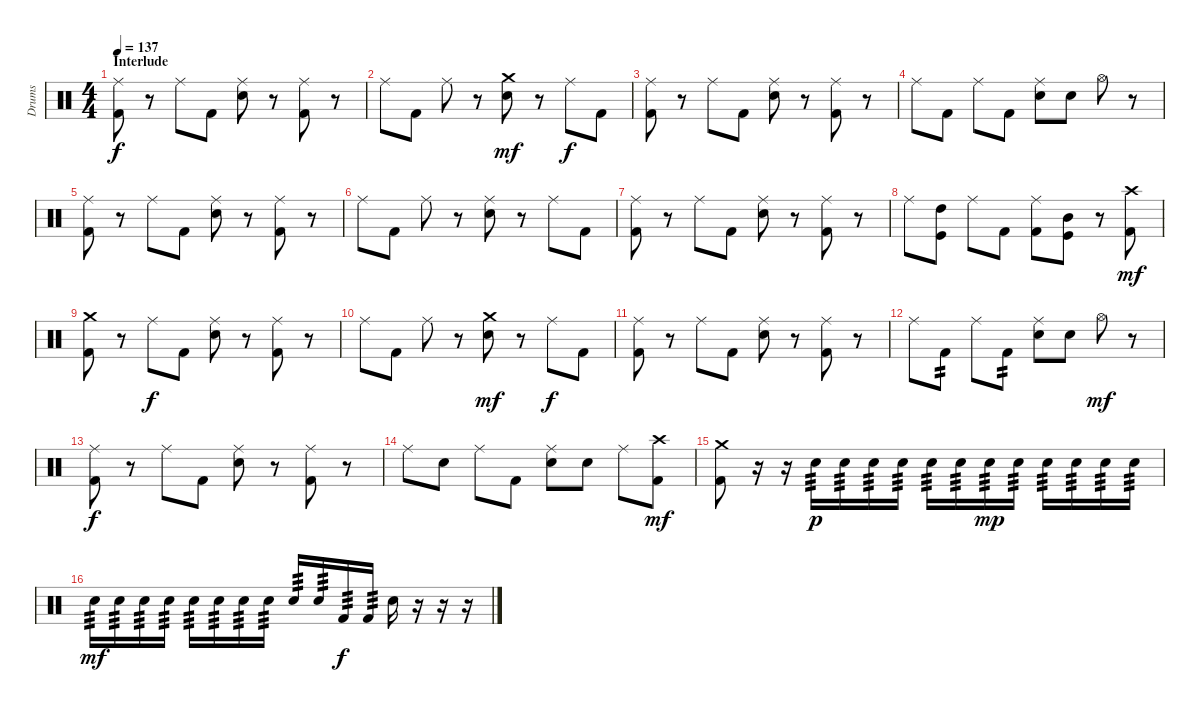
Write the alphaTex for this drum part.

\track ("Drums" "Drums") {instrument percussion}
\staff {score}
\articulation defaults
\ts (4 4)
\section ("" "Interlude")
\tempo 137
\clef neutral
\ks c
("Ride (middle)" "Kick (hit) 2").8{dy f} r.8 "Ride (middle)".8 "Kick (hit) 2".8 ("Ride (middle)" "Electric Snare (hit)").8 r.8 ("Ride (middle)" "Kick (hit) 2").8 r.8 |
"Ride (middle)".8 "Kick (hit) 2".8 "Ride (middle)".8 r.8 ("Crash medium (hit)" "Electric Snare (hit)").8{dy mf} r.8 "Ride (middle)".8{dy f} "Kick (hit) 2".8 |
("Ride (middle)" "Kick (hit) 2").8 r.8 "Ride (middle)".8 "Kick (hit) 2".8 ("Ride (middle)" "Electric Snare (hit)").8 r.8 ("Ride (middle)" "Kick (hit) 2").8 r.8 |
"Ride (middle)".8 "Kick (hit) 2".8 "Ride (middle)".8 "Kick (hit) 2".8 ("Ride (middle)" "Electric Snare (hit)").8 "Electric Snare (hit)".8 "Hi-Hat (open)".8 r.8 |
("Ride (middle)" "Kick (hit) 2").8 r.8 "Ride (middle)".8 "Kick (hit) 2".8 ("Ride (middle)" "Electric Snare (hit)").8 r.8 ("Ride (middle)" "Kick (hit) 2").8 r.8 |
"Ride (middle)".8 "Kick (hit) 2".8 "Ride (middle)".8 r.8 ("Ride (middle)" "Electric Snare (hit)").8 r.8 "Ride (middle)".8 "Kick (hit) 2".8 |
("Ride (middle)" "Kick (hit) 2").8 r.8 "Ride (middle)".8 "Kick (hit) 2".8 ("Ride (middle)" "Electric Snare (hit)").8 r.8 ("Ride (middle)" "Kick (hit) 2").8 r.8 |
"Ride (middle)".8 ("High Tom (hit)" "Kick (hit)").8 "Ride (middle)".8 "Kick (hit) 2".8 ("Ride (middle)" "Kick (hit) 2").8 ("Mid Tom (hit)" "Kick (hit)").8 r.8 ("Crash high (hit)" "Kick (hit) 2").8{dy mf} |
("Crash medium (hit)" "Kick (hit) 2").8 r.8 "Ride (middle)".8{dy f} "Kick (hit) 2".8 ("Ride (middle)" "Electric Snare (hit)").8 r.8 ("Ride (middle)" "Kick (hit) 2").8 r.8 |
"Ride (middle)".8 "Kick (hit) 2".8 "Ride (middle)".8 r.8 ("Crash medium (hit)" "Electric Snare (hit)").8{dy mf} r.8 "Ride (middle)".8{dy f} "Kick (hit) 2".8 |
("Ride (middle)" "Kick (hit) 2").8 r.8 "Ride (middle)".8 "Kick (hit) 2".8 ("Ride (middle)" "Electric Snare (hit)").8 r.8 ("Ride (middle)" "Kick (hit) 2").8 r.8 |
"Ride (middle)".8 "Kick (hit) 2".8{tp 2} "Ride (middle)".8 "Kick (hit) 2".8{tp 2} ("Ride (middle)" "Electric Snare (hit)").8 "Electric Snare (hit)".8 "Hi-Hat (open)".8{dy mf} r.8 |
("Ride (middle)" "Kick (hit) 2").8{dy f} r.8 "Ride (middle)".8 "Kick (hit) 2".8 ("Ride (middle)" "Electric Snare (hit)").8 r.8 ("Ride (middle)" "Kick (hit) 2").8 r.8 |
"Ride (middle)".8 "Electric Snare (hit)".8 "Ride (middle)".8 "Kick (hit) 2".8 ("Ride (middle)" "Electric Snare (hit)").8 "Electric Snare (hit)".8 "Ride (middle)".8 ("Crash high (hit)" "Kick (hit) 2").8{dy mf} |
("Crash medium (hit)" "Kick (hit) 2").8 r.16 r.16 "Electric Snare (hit)".16{tp 3 dy p} "Electric Snare (hit)".16{tp 3} "Electric Snare (hit)".16{tp 3} "Electric Snare (hit)".16{tp 3} "Electric Snare (hit)".16{tp 3} "Electric Snare (hit)".16{tp 3} "Electric Snare (hit)".16{tp 3 dy mp} "Electric Snare (hit)".16{tp 3} "Electric Snare (hit)".16{tp 3} "Electric Snare (hit)".16{tp 3} "Electric Snare (hit)".16{tp 3} "Electric Snare (hit)".16{tp 3} |
"Electric Snare (hit)".16{tp 3 dy mf} "Electric Snare (hit)".16{tp 3} "Electric Snare (hit)".16{tp 3} "Electric Snare (hit)".16{tp 3} "Electric Snare (hit)".16{tp 3} "Electric Snare (hit)".16{tp 3} "Electric Snare (hit)".16{tp 3} "Electric Snare (hit)".16{tp 3} "Electric Snare (hit)".16{tp 3} "Electric Snare (hit)".16{tp 3} "Kick (hit) 2".16{tp 3 dy f} "Kick (hit) 2".16{tp 3} "Electric Snare (hit)".16 r.16 r.16 r.16
